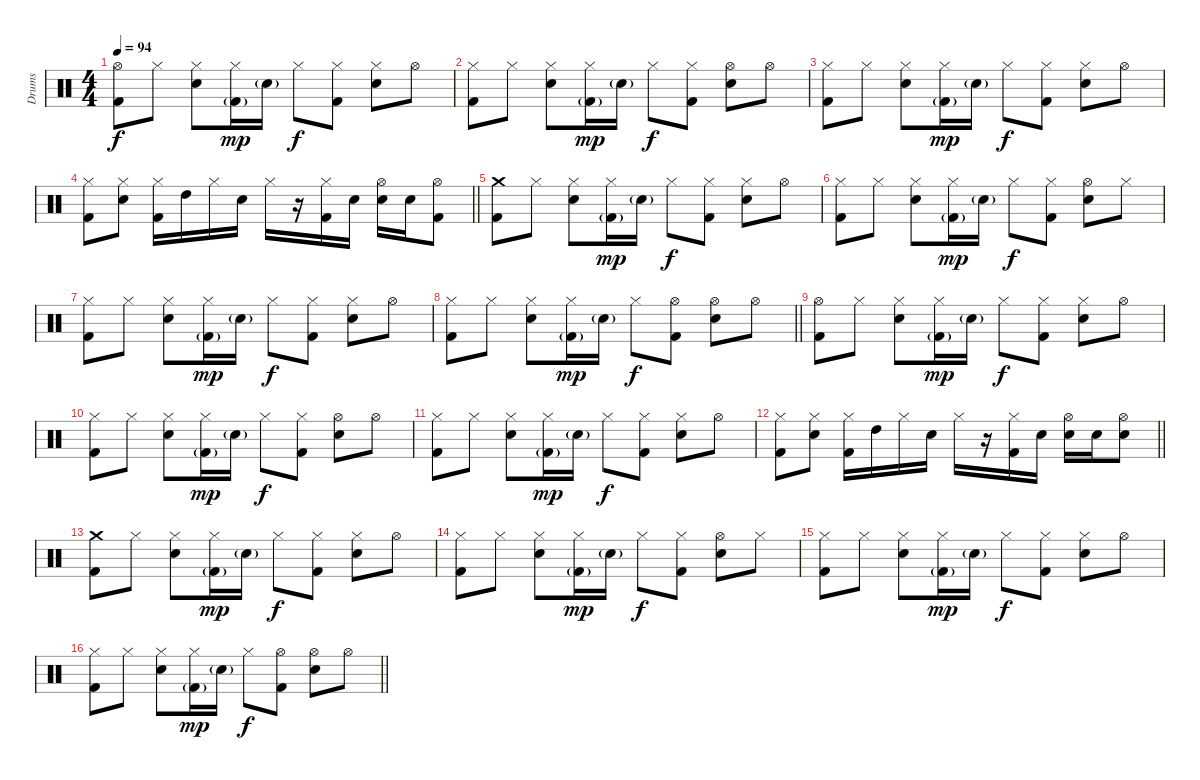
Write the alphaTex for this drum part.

\track ("Drums" "Drums") {instrument percussion}
\staff {score}
\articulation defaults
\ts (4 4)
\tempo 94
\clef neutral
\ks c
("Hi-Hat (open)" "Kick (hit) 2").8{dy f} "Hi-Hat (closed)".8 ("Hi-Hat (closed)" "Electric Snare (hit)").8 ("Hi-Hat (closed)" "Kick (hit) 2"{g}).16{dy mp} "Electric Snare (hit)"{g}.16 "Hi-Hat (closed)".8{dy f} ("Hi-Hat (closed)" "Kick (hit) 2").8 ("Hi-Hat (closed)" "Electric Snare (hit)").8 "Hi-Hat (open)".8 |
("Hi-Hat (closed)" "Kick (hit) 2").8 "Hi-Hat (closed)".8 ("Hi-Hat (closed)" "Electric Snare (hit)").8 ("Hi-Hat (closed)" "Kick (hit) 2"{g}).16{dy mp} "Electric Snare (hit)"{g}.16 "Hi-Hat (closed)".8{dy f} ("Hi-Hat (closed)" "Kick (hit) 2").8 ("Hi-Hat (open)" "Electric Snare (hit)").8 "Hi-Hat (open)".8 |
("Hi-Hat (closed)" "Kick (hit) 2").8 "Hi-Hat (closed)".8 ("Hi-Hat (closed)" "Electric Snare (hit)").8 ("Hi-Hat (closed)" "Kick (hit) 2"{g}).16{dy mp} "Electric Snare (hit)"{g}.16 "Hi-Hat (closed)".8{dy f} ("Hi-Hat (closed)" "Kick (hit) 2").8 ("Hi-Hat (closed)" "Electric Snare (hit)").8 "Hi-Hat (open)".8 |
\barLineRight lightlight
("Hi-Hat (closed)" "Kick (hit) 2").8 ("Hi-Hat (closed)" "Electric Snare (hit)").8 ("Hi-Hat (closed)" "Kick (hit) 2").16 "High Tom (hit)".16 "Hi-Hat (closed)".16 "Electric Snare (hit)".16 "Hi-Hat (closed)".16 r.16 ("Hi-Hat (closed)" "Kick (hit) 2").16 "Electric Snare (hit)".16 ("Hi-Hat (open)" "Electric Snare (hit)").16 "Electric Snare (hit)".16 ("Hi-Hat (open)" "Kick (hit) 2").8 |
("Crash medium (hit)" "Kick (hit) 2").8 "Hi-Hat (closed)".8 ("Hi-Hat (closed)" "Electric Snare (hit)").8 ("Hi-Hat (closed)" "Kick (hit) 2"{g}).16{dy mp} "Electric Snare (hit)"{g}.16 "Hi-Hat (closed)".8{dy f} ("Hi-Hat (closed)" "Kick (hit) 2").8 ("Hi-Hat (closed)" "Electric Snare (hit)").8 "Hi-Hat (open)".8 |
("Hi-Hat (closed)" "Kick (hit) 2").8 "Hi-Hat (closed)".8 ("Hi-Hat (closed)" "Electric Snare (hit)").8 ("Hi-Hat (closed)" "Kick (hit) 2"{g}).16{dy mp} "Electric Snare (hit)"{g}.16 "Hi-Hat (closed)".8{dy f} ("Hi-Hat (closed)" "Kick (hit) 2").8 ("Hi-Hat (open)" "Electric Snare (hit)").8 "Hi-Hat (closed)".8 |
("Hi-Hat (closed)" "Kick (hit) 2").8 "Hi-Hat (closed)".8 ("Hi-Hat (closed)" "Electric Snare (hit)").8 ("Hi-Hat (closed)" "Kick (hit) 2"{g}).16{dy mp} "Electric Snare (hit)"{g}.16 "Hi-Hat (closed)".8{dy f} ("Hi-Hat (closed)" "Kick (hit) 2").8 ("Hi-Hat (closed)" "Electric Snare (hit)").8 "Hi-Hat (open)".8 |
\barLineRight lightlight
("Hi-Hat (closed)" "Kick (hit) 2").8 "Hi-Hat (closed)".8 ("Hi-Hat (closed)" "Electric Snare (hit)").8 ("Hi-Hat (closed)" "Kick (hit) 2"{g}).16{dy mp} "Electric Snare (hit)"{g}.16 "Hi-Hat (closed)".8{dy f} ("Hi-Hat (open)" "Kick (hit) 2").8 ("Hi-Hat (open)" "Electric Snare (hit)").8 "Hi-Hat (open)".8 |
("Hi-Hat (open)" "Kick (hit) 2").8 "Hi-Hat (closed)".8 ("Hi-Hat (closed)" "Electric Snare (hit)").8 ("Hi-Hat (closed)" "Kick (hit) 2"{g}).16{dy mp} "Electric Snare (hit)"{g}.16 "Hi-Hat (closed)".8{dy f} ("Hi-Hat (closed)" "Kick (hit) 2").8 ("Hi-Hat (closed)" "Electric Snare (hit)").8 "Hi-Hat (open)".8 |
("Hi-Hat (closed)" "Kick (hit) 2").8 "Hi-Hat (closed)".8 ("Hi-Hat (closed)" "Electric Snare (hit)").8 ("Hi-Hat (closed)" "Kick (hit) 2"{g}).16{dy mp} "Electric Snare (hit)"{g}.16 "Hi-Hat (closed)".8{dy f} ("Hi-Hat (closed)" "Kick (hit) 2").8 ("Hi-Hat (open)" "Electric Snare (hit)").8 "Hi-Hat (open)".8 |
("Hi-Hat (closed)" "Kick (hit) 2").8 "Hi-Hat (closed)".8 ("Hi-Hat (closed)" "Electric Snare (hit)").8 ("Hi-Hat (closed)" "Kick (hit) 2"{g}).16{dy mp} "Electric Snare (hit)"{g}.16 "Hi-Hat (closed)".8{dy f} ("Hi-Hat (closed)" "Kick (hit) 2").8 ("Hi-Hat (closed)" "Electric Snare (hit)").8 "Hi-Hat (open)".8 |
\barLineRight lightlight
("Hi-Hat (closed)" "Kick (hit) 2").8 ("Hi-Hat (closed)" "Electric Snare (hit)").8 ("Hi-Hat (closed)" "Kick (hit) 2").16 "High Tom (hit)".16 "Hi-Hat (closed)".16 "Electric Snare (hit)".16 "Hi-Hat (closed)".16 r.16 ("Hi-Hat (closed)" "Kick (hit) 2").16 "Electric Snare (hit)".16 ("Hi-Hat (open)" "Electric Snare (hit)").16 "Electric Snare (hit)".16 ("Hi-Hat (open)" "Electric Snare (hit)").8 |
("Crash medium (hit)" "Kick (hit) 2").8 "Hi-Hat (closed)".8 ("Hi-Hat (closed)" "Electric Snare (hit)").8 ("Hi-Hat (closed)" "Kick (hit) 2"{g}).16{dy mp} "Electric Snare (hit)"{g}.16 "Hi-Hat (closed)".8{dy f} ("Hi-Hat (closed)" "Kick (hit) 2").8 ("Hi-Hat (closed)" "Electric Snare (hit)").8 "Hi-Hat (open)".8 |
("Hi-Hat (closed)" "Kick (hit) 2").8 "Hi-Hat (closed)".8 ("Hi-Hat (closed)" "Electric Snare (hit)").8 ("Hi-Hat (closed)" "Kick (hit) 2"{g}).16{dy mp} "Electric Snare (hit)"{g}.16 "Hi-Hat (closed)".8{dy f} ("Hi-Hat (closed)" "Kick (hit) 2").8 ("Hi-Hat (open)" "Electric Snare (hit)").8 "Hi-Hat (closed)".8 |
("Hi-Hat (closed)" "Kick (hit) 2").8 "Hi-Hat (closed)".8 ("Hi-Hat (closed)" "Electric Snare (hit)").8 ("Hi-Hat (closed)" "Kick (hit) 2"{g}).16{dy mp} "Electric Snare (hit)"{g}.16 "Hi-Hat (closed)".8{dy f} ("Hi-Hat (closed)" "Kick (hit) 2").8 ("Hi-Hat (closed)" "Electric Snare (hit)").8 "Hi-Hat (open)".8 |
\barLineRight lightlight
("Hi-Hat (closed)" "Kick (hit) 2").8 "Hi-Hat (closed)".8 ("Hi-Hat (closed)" "Electric Snare (hit)").8 ("Hi-Hat (closed)" "Kick (hit) 2"{g}).16{dy mp} "Electric Snare (hit)"{g}.16 "Hi-Hat (closed)".8{dy f} ("Hi-Hat (open)" "Kick (hit) 2").8 ("Hi-Hat (open)" "Electric Snare (hit)").8 "Hi-Hat (open)".8
